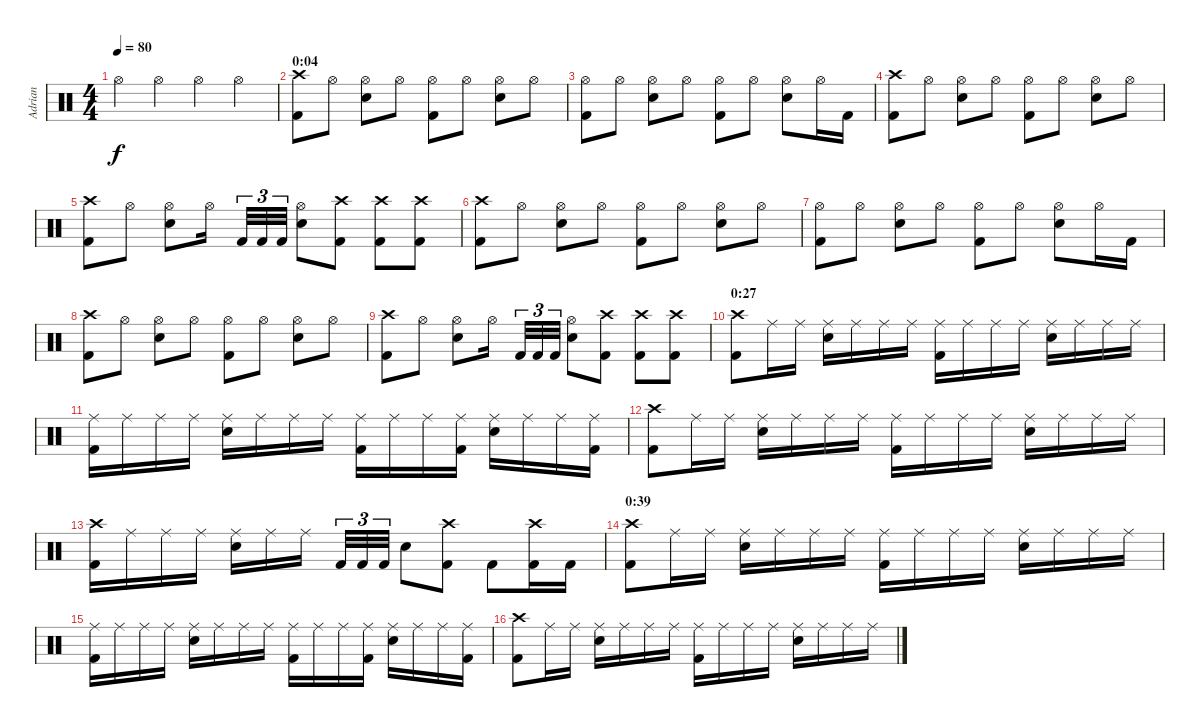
\track ("Adrian" "Adrian") {instrument percussion}
\staff {score}
\articulation defaults
\ts (4 4)
\tempo 80
\clef neutral
\ks c "Hi-Hat (open)".4{dy f} "Hi-Hat (open)".4 "Hi-Hat (open)".4 "Hi-Hat (open)".4
|
\section ("" "0:04")
("Kick (hit) 2" "Crash high (hit)").8 "Hi-Hat (open)".8 ("Snare (hit) 2" "Hi-Hat (open)").8 "Hi-Hat (open)".8 ("Kick (hit) 2" "Hi-Hat (open)").8 "Hi-Hat (open)".8 ("Snare (hit) 2" "Hi-Hat (open)").8 "Hi-Hat (open)".8 |
("Kick (hit) 2" "Hi-Hat (open)").8 "Hi-Hat (open)".8 ("Snare (hit) 2" "Hi-Hat (open)").8 "Hi-Hat (open)".8 ("Kick (hit) 2" "Hi-Hat (open)").8 "Hi-Hat (open)".8 ("Snare (hit) 2" "Hi-Hat (open)").8 "Hi-Hat (open)".16 "Kick (hit) 2".16 |
("Kick (hit) 2" "Crash high (hit)").8 "Hi-Hat (open)".8 ("Snare (hit) 2" "Hi-Hat (open)").8 "Hi-Hat (open)".8 ("Kick (hit) 2" "Hi-Hat (open)").8 "Hi-Hat (open)".8 ("Snare (hit) 2" "Hi-Hat (open)").8 "Hi-Hat (open)".8 |
("Kick (hit) 2" "Crash high (hit)").8 "Hi-Hat (open)".8 ("Snare (hit) 2" "Hi-Hat (open)").8 "Hi-Hat (open)".16 "Kick (hit) 2".32{tu (3 2)} "Kick (hit) 2".32{tu (3 2)} "Kick (hit) 2".32{tu (3 2)} ("Snare (hit) 2" "Hi-Hat (open)").8 ("Kick (hit) 2" "Crash high (hit)").8 ("Kick (hit) 2" "Crash high (hit)").8 ("Kick (hit) 2" "Crash high (hit)").8 |
("Kick (hit) 2" "Crash high (hit)").8 "Hi-Hat (open)".8 ("Snare (hit) 2" "Hi-Hat (open)").8 "Hi-Hat (open)".8 ("Kick (hit) 2" "Hi-Hat (open)").8 "Hi-Hat (open)".8 ("Snare (hit) 2" "Hi-Hat (open)").8 "Hi-Hat (open)".8 |
("Kick (hit) 2" "Hi-Hat (open)").8 "Hi-Hat (open)".8 ("Snare (hit) 2" "Hi-Hat (open)").8 "Hi-Hat (open)".8 ("Kick (hit) 2" "Hi-Hat (open)").8 "Hi-Hat (open)".8 ("Snare (hit) 2" "Hi-Hat (open)").8 "Hi-Hat (open)".16 "Kick (hit) 2".16 |
("Kick (hit) 2" "Crash high (hit)").8 "Hi-Hat (open)".8 ("Snare (hit) 2" "Hi-Hat (open)").8 "Hi-Hat (open)".8 ("Kick (hit) 2" "Hi-Hat (open)").8 "Hi-Hat (open)".8 ("Snare (hit) 2" "Hi-Hat (open)").8 "Hi-Hat (open)".8 |
("Kick (hit) 2" "Crash high (hit)").8 "Hi-Hat (open)".8 ("Snare (hit) 2" "Hi-Hat (open)").8 "Hi-Hat (open)".16 "Kick (hit) 2".32{tu (3 2)} "Kick (hit) 2".32{tu (3 2)} "Kick (hit) 2".32{tu (3 2)} ("Snare (hit) 2" "Hi-Hat (open)").8 ("Kick (hit) 2" "Crash high (hit)").8 ("Kick (hit) 2" "Crash high (hit)").8 ("Kick (hit) 2" "Crash high (hit)").8 |
\section ("" "0:27")
("Kick (hit) 2" "Crash high (hit)").8 "Ride (middle)".16 "Ride (middle)".16 ("Snare (hit) 2" "Ride (middle)").16 "Ride (middle)".16 "Ride (middle)".16 "Ride (middle)".16 ("Kick (hit) 2" "Ride (middle)").16 "Ride (middle)".16 "Ride (middle)".16 "Ride (middle)".16 ("Snare (hit) 2" "Ride (middle)").16 "Ride (middle)".16 "Ride (middle)".16 "Ride (middle)".16 |
("Kick (hit) 2" "Ride (middle)").16 "Ride (middle)".16 "Ride (middle)".16 "Ride (middle)".16 ("Snare (hit) 2" "Ride (middle)").16 "Ride (middle)".16 "Ride (middle)".16 "Ride (middle)".16 ("Kick (hit) 2" "Ride (middle)").16 "Ride (middle)".16 "Ride (middle)".16 ("Kick (hit) 2" "Ride (middle)").16 ("Snare (hit) 2" "Ride (middle)").16 "Ride (middle)".16 "Ride (middle)".16 ("Kick (hit) 2" "Ride (middle)").16 |
("Kick (hit) 2" "Crash high (hit)").8 "Ride (middle)".16 "Ride (middle)".16 ("Snare (hit) 2" "Ride (middle)").16 "Ride (middle)".16 "Ride (middle)".16 "Ride (middle)".16 ("Kick (hit) 2" "Ride (middle)").16 "Ride (middle)".16 "Ride (middle)".16 "Ride (middle)".16 ("Snare (hit) 2" "Ride (middle)").16 "Ride (middle)".16 "Ride (middle)".16 "Ride (middle)".16 |
("Kick (hit) 2" "Crash high (hit)").16 "Ride (middle)".16 "Ride (middle)".16 "Ride (middle)".16 ("Snare (hit) 2" "Ride (middle)").16 "Ride (middle)".16 "Ride (middle)".16 "Kick (hit) 2".32{tu (3 2)} "Kick (hit) 2".32{tu (3 2)} "Kick (hit) 2".32{tu (3 2)} "Snare (hit) 2".8 ("Kick (hit) 2" "Crash high (hit)").8 "Kick (hit) 2".8 ("Kick (hit) 2" "Crash high (hit)").16 "Kick (hit) 2".16 |
\section ("" "0:39")
("Kick (hit) 2" "Crash high (hit)").8 "Ride (middle)".16 "Ride (middle)".16 ("Snare (hit) 2" "Ride (middle)").16 "Ride (middle)".16 "Ride (middle)".16 "Ride (middle)".16 ("Kick (hit) 2" "Ride (middle)").16 "Ride (middle)".16 "Ride (middle)".16 "Ride (middle)".16 ("Snare (hit) 2" "Ride (middle)").16 "Ride (middle)".16 "Ride (middle)".16 "Ride (middle)".16 |
("Kick (hit) 2" "Ride (middle)").16 "Ride (middle)".16 "Ride (middle)".16 "Ride (middle)".16 ("Snare (hit) 2" "Ride (middle)").16 "Ride (middle)".16 "Ride (middle)".16 "Ride (middle)".16 ("Kick (hit) 2" "Ride (middle)").16 "Ride (middle)".16 "Ride (middle)".16 ("Kick (hit) 2" "Ride (middle)").16 ("Snare (hit) 2" "Ride (middle)").16 "Ride (middle)".16 "Ride (middle)".16 ("Kick (hit) 2" "Ride (middle)").16 |
("Kick (hit) 2" "Crash high (hit)").8 "Ride (middle)".16 "Ride (middle)".16 ("Snare (hit) 2" "Ride (middle)").16 "Ride (middle)".16 "Ride (middle)".16 "Ride (middle)".16 ("Kick (hit) 2" "Ride (middle)").16 "Ride (middle)".16 "Ride (middle)".16 "Ride (middle)".16 ("Snare (hit) 2" "Ride (middle)").16 "Ride (middle)".16 "Ride (middle)".16 "Ride (middle)".16
